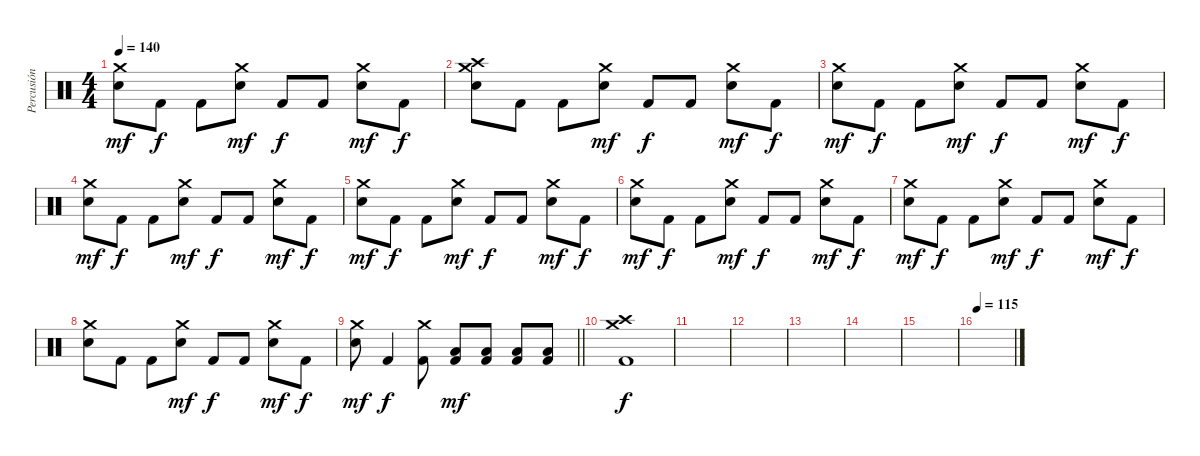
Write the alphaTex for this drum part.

\track ("Percusión" "Percusión") {instrument percussion}
\staff {score}
\articulation defaults
\ts (4 4)
\tempo 140
\clef neutral
\ks c
("Crash medium (hit)" "Electric Snare (hit)").8{dy mf} "Kick (hit) 2".8{dy f} "Kick (hit) 2".8 ("Crash medium (hit)" "Electric Snare (hit)").8{dy mf} "Kick (hit) 2".8{dy f} "Kick (hit) 2".8 ("Crash medium (hit)" "Electric Snare (hit)").8{dy mf} "Kick (hit) 2".8{dy f} |
("Crash medium (hit)" "Crash high (hit)" "Electric Snare (hit)").8 "Kick (hit) 2".8 "Kick (hit) 2".8 ("Crash medium (hit)" "Electric Snare (hit)").8{dy mf} "Kick (hit) 2".8{dy f} "Kick (hit) 2".8 ("Crash medium (hit)" "Electric Snare (hit)").8{dy mf} "Kick (hit) 2".8{dy f} |
("Crash medium (hit)" "Electric Snare (hit)").8{dy mf} "Kick (hit) 2".8{dy f} "Kick (hit) 2".8 ("Crash medium (hit)" "Electric Snare (hit)").8{dy mf} "Kick (hit) 2".8{dy f} "Kick (hit) 2".8 ("Crash medium (hit)" "Electric Snare (hit)").8{dy mf} "Kick (hit) 2".8{dy f} |
("Crash medium (hit)" "Electric Snare (hit)").8{dy mf} "Kick (hit) 2".8{dy f} "Kick (hit) 2".8 ("Crash medium (hit)" "Electric Snare (hit)").8{dy mf} "Kick (hit) 2".8{dy f} "Kick (hit) 2".8 ("Crash medium (hit)" "Electric Snare (hit)").8{dy mf} "Kick (hit) 2".8{dy f} |
("Crash medium (hit)" "Electric Snare (hit)").8{dy mf} "Kick (hit) 2".8{dy f} "Kick (hit) 2".8 ("Crash medium (hit)" "Electric Snare (hit)").8{dy mf} "Kick (hit) 2".8{dy f} "Kick (hit) 2".8 ("Crash medium (hit)" "Electric Snare (hit)").8{dy mf} "Kick (hit) 2".8{dy f} |
("Crash medium (hit)" "Electric Snare (hit)").8{dy mf} "Kick (hit) 2".8{dy f} "Kick (hit) 2".8 ("Crash medium (hit)" "Electric Snare (hit)").8{dy mf} "Kick (hit) 2".8{dy f} "Kick (hit) 2".8 ("Crash medium (hit)" "Electric Snare (hit)").8{dy mf} "Kick (hit) 2".8{dy f} |
("Crash medium (hit)" "Electric Snare (hit)").8{dy mf} "Kick (hit) 2".8{dy f} "Kick (hit) 2".8 ("Crash medium (hit)" "Electric Snare (hit)").8{dy mf} "Kick (hit) 2".8{dy f} "Kick (hit) 2".8 ("Crash medium (hit)" "Electric Snare (hit)").8{dy mf} "Kick (hit) 2".8{dy f} |
("Crash medium (hit)" "Electric Snare (hit)").8 "Kick (hit) 2".8 "Kick (hit) 2".8 ("Crash medium (hit)" "Electric Snare (hit)").8{dy mf} "Kick (hit) 2".8{dy f} "Kick (hit) 2".8 ("Crash medium (hit)" "Electric Snare (hit)").8{dy mf} "Kick (hit) 2".8{dy f} |
\barLineRight lightlight
("Crash medium (hit)" "Electric Snare (hit)").8{dy mf} "Kick (hit) 2".4{dy f} ("Crash medium (hit)" "Kick (hit) 2").8 ("Low Floor Tom (hit)" "Kick (hit) 2").8{dy mf} ("Low Floor Tom (hit)" "Kick (hit) 2").8 ("Low Floor Tom (hit)" "Kick (hit) 2").8 ("Low Floor Tom (hit)" "Kick (hit) 2").8 |
("Crash medium (hit)" "Crash high (hit)" "Kick (hit) 2").1{dy f} |
|
|
|
|
|
\tempo 115
